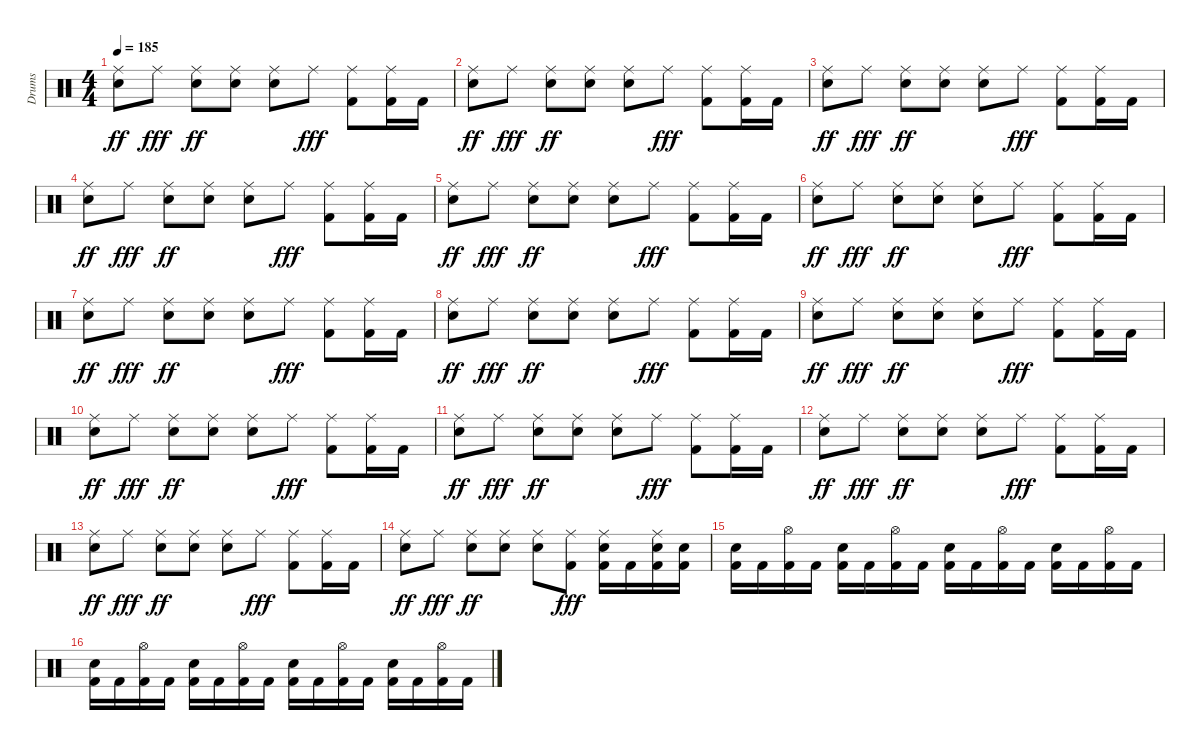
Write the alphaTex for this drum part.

\track ("Drums" "Drums") {instrument percussion}
\staff {score}
\articulation defaults
\ts (4 4)
\tempo 185
\clef neutral
\ks c
("Ride (middle)" "Snare (hit) 2").8{dy ff} "Ride (middle)".8{dy fff} ("Ride (middle)" "Electric Snare (hit)").8{dy ff} ("Ride (middle)" "Electric Snare (hit)").8 ("Ride (middle)" "Snare (hit) 2").8 "Ride (middle)".8{dy fff} ("Ride (middle)" "Kick (hit) 2").8 ("Ride (middle)" "Kick (hit) 2").16 "Kick (hit) 2".16 |
("Ride (middle)" "Snare (hit) 2").8{dy ff} "Ride (middle)".8{dy fff} ("Ride (middle)" "Electric Snare (hit)").8{dy ff} ("Ride (middle)" "Electric Snare (hit)").8 ("Ride (middle)" "Snare (hit) 2").8 "Ride (middle)".8{dy fff} ("Ride (middle)" "Kick (hit) 2").8 ("Ride (middle)" "Kick (hit) 2").16 "Kick (hit) 2".16 |
("Ride (middle)" "Snare (hit) 2").8{dy ff} "Ride (middle)".8{dy fff} ("Ride (middle)" "Electric Snare (hit)").8{dy ff} ("Ride (middle)" "Electric Snare (hit)").8 ("Ride (middle)" "Snare (hit) 2").8 "Ride (middle)".8{dy fff} ("Ride (middle)" "Kick (hit) 2").8 ("Ride (middle)" "Kick (hit) 2").16 "Kick (hit) 2".16 |
("Ride (middle)" "Snare (hit) 2").8{dy ff} "Ride (middle)".8{dy fff} ("Ride (middle)" "Electric Snare (hit)").8{dy ff} ("Ride (middle)" "Electric Snare (hit)").8 ("Ride (middle)" "Snare (hit) 2").8 "Ride (middle)".8{dy fff} ("Ride (middle)" "Kick (hit) 2").8 ("Ride (middle)" "Kick (hit) 2").16 "Kick (hit) 2".16 |
("Ride (middle)" "Snare (hit) 2").8{dy ff} "Ride (middle)".8{dy fff} ("Ride (middle)" "Electric Snare (hit)").8{dy ff} ("Ride (middle)" "Electric Snare (hit)").8 ("Ride (middle)" "Snare (hit) 2").8 "Ride (middle)".8{dy fff} ("Ride (middle)" "Kick (hit) 2").8 ("Ride (middle)" "Kick (hit) 2").16 "Kick (hit) 2".16 |
("Ride (middle)" "Snare (hit) 2").8{dy ff} "Ride (middle)".8{dy fff} ("Ride (middle)" "Electric Snare (hit)").8{dy ff} ("Ride (middle)" "Electric Snare (hit)").8 ("Ride (middle)" "Snare (hit) 2").8 "Ride (middle)".8{dy fff} ("Ride (middle)" "Kick (hit) 2").8 ("Ride (middle)" "Kick (hit) 2").16 "Kick (hit) 2".16 |
("Ride (middle)" "Snare (hit) 2").8{dy ff} "Ride (middle)".8{dy fff} ("Ride (middle)" "Electric Snare (hit)").8{dy ff} ("Ride (middle)" "Electric Snare (hit)").8 ("Ride (middle)" "Snare (hit) 2").8 "Ride (middle)".8{dy fff} ("Ride (middle)" "Kick (hit) 2").8 ("Ride (middle)" "Kick (hit) 2").16 "Kick (hit) 2".16 |
("Ride (middle)" "Snare (hit) 2").8{dy ff} "Ride (middle)".8{dy fff} ("Ride (middle)" "Electric Snare (hit)").8{dy ff} ("Ride (middle)" "Electric Snare (hit)").8 ("Ride (middle)" "Snare (hit) 2").8 "Ride (middle)".8{dy fff} ("Ride (middle)" "Kick (hit) 2").8 ("Ride (middle)" "Kick (hit) 2").16 "Kick (hit) 2".16 |
("Ride (middle)" "Snare (hit) 2").8{dy ff} "Ride (middle)".8{dy fff} ("Ride (middle)" "Electric Snare (hit)").8{dy ff} ("Ride (middle)" "Electric Snare (hit)").8 ("Ride (middle)" "Snare (hit) 2").8 "Ride (middle)".8{dy fff} ("Ride (middle)" "Kick (hit) 2").8 ("Ride (middle)" "Kick (hit) 2").16 "Kick (hit) 2".16 |
("Ride (middle)" "Snare (hit) 2").8{dy ff} "Ride (middle)".8{dy fff} ("Ride (middle)" "Electric Snare (hit)").8{dy ff} ("Ride (middle)" "Electric Snare (hit)").8 ("Ride (middle)" "Snare (hit) 2").8 "Ride (middle)".8{dy fff} ("Ride (middle)" "Kick (hit) 2").8 ("Ride (middle)" "Kick (hit) 2").16 "Kick (hit) 2".16 |
("Ride (middle)" "Snare (hit) 2").8{dy ff} "Ride (middle)".8{dy fff} ("Ride (middle)" "Electric Snare (hit)").8{dy ff} ("Ride (middle)" "Electric Snare (hit)").8 ("Ride (middle)" "Snare (hit) 2").8 "Ride (middle)".8{dy fff} ("Ride (middle)" "Kick (hit) 2").8 ("Ride (middle)" "Kick (hit) 2").16 "Kick (hit) 2".16 |
("Ride (middle)" "Snare (hit) 2").8{dy ff} "Ride (middle)".8{dy fff} ("Ride (middle)" "Electric Snare (hit)").8{dy ff} ("Ride (middle)" "Electric Snare (hit)").8 ("Ride (middle)" "Snare (hit) 2").8 "Ride (middle)".8{dy fff} ("Ride (middle)" "Kick (hit) 2").8 ("Ride (middle)" "Kick (hit) 2").16 "Kick (hit) 2".16 |
("Ride (middle)" "Snare (hit) 2").8{dy ff} "Ride (middle)".8{dy fff} ("Ride (middle)" "Electric Snare (hit)").8{dy ff} ("Ride (middle)" "Electric Snare (hit)").8 ("Ride (middle)" "Snare (hit) 2").8 "Ride (middle)".8{dy fff} ("Ride (middle)" "Kick (hit) 2").8 ("Ride (middle)" "Kick (hit) 2").16 "Kick (hit) 2".16 |
("Ride (middle)" "Snare (hit) 2").8{dy ff} "Ride (middle)".8{dy fff} ("Ride (middle)" "Electric Snare (hit)").8{dy ff} ("Ride (middle)" "Electric Snare (hit)").8 ("Ride (middle)" "Snare (hit) 2").8 ("Ride (middle)" "Kick (hit) 2").8{dy fff} ("Electric Snare (hit)" "Ride (middle)" "Kick (hit) 2").16 "Kick (hit) 2".16 ("Electric Snare (hit)" "Ride (middle)" "Kick (hit) 2").16 ("Electric Snare (hit)" "Kick (hit) 2").16 |
("Electric Snare (hit)" "Kick (hit) 2").16 "Kick (hit) 2".16 ("Hi-Hat (open)" "Kick (hit) 2").16 "Kick (hit) 2".16 ("Electric Snare (hit)" "Kick (hit) 2").16 "Kick (hit) 2".16 ("Hi-Hat (open)" "Kick (hit) 2").16 "Kick (hit) 2".16 ("Electric Snare (hit)" "Kick (hit) 2").16 "Kick (hit) 2".16 ("Hi-Hat (open)" "Kick (hit) 2").16 "Kick (hit) 2".16 ("Electric Snare (hit)" "Kick (hit) 2").16 "Kick (hit) 2".16 ("Hi-Hat (open)" "Kick (hit) 2").16 "Kick (hit) 2".16 |
("Electric Snare (hit)" "Kick (hit) 2").16 "Kick (hit) 2".16 ("Hi-Hat (open)" "Kick (hit) 2").16 "Kick (hit) 2".16 ("Electric Snare (hit)" "Kick (hit) 2").16 "Kick (hit) 2".16 ("Hi-Hat (open)" "Kick (hit) 2").16 "Kick (hit) 2".16 ("Electric Snare (hit)" "Kick (hit) 2").16 "Kick (hit) 2".16 ("Hi-Hat (open)" "Kick (hit) 2").16 "Kick (hit) 2".16 ("Electric Snare (hit)" "Kick (hit) 2").16 "Kick (hit) 2".16 ("Hi-Hat (open)" "Kick (hit) 2").16 "Kick (hit) 2".16
